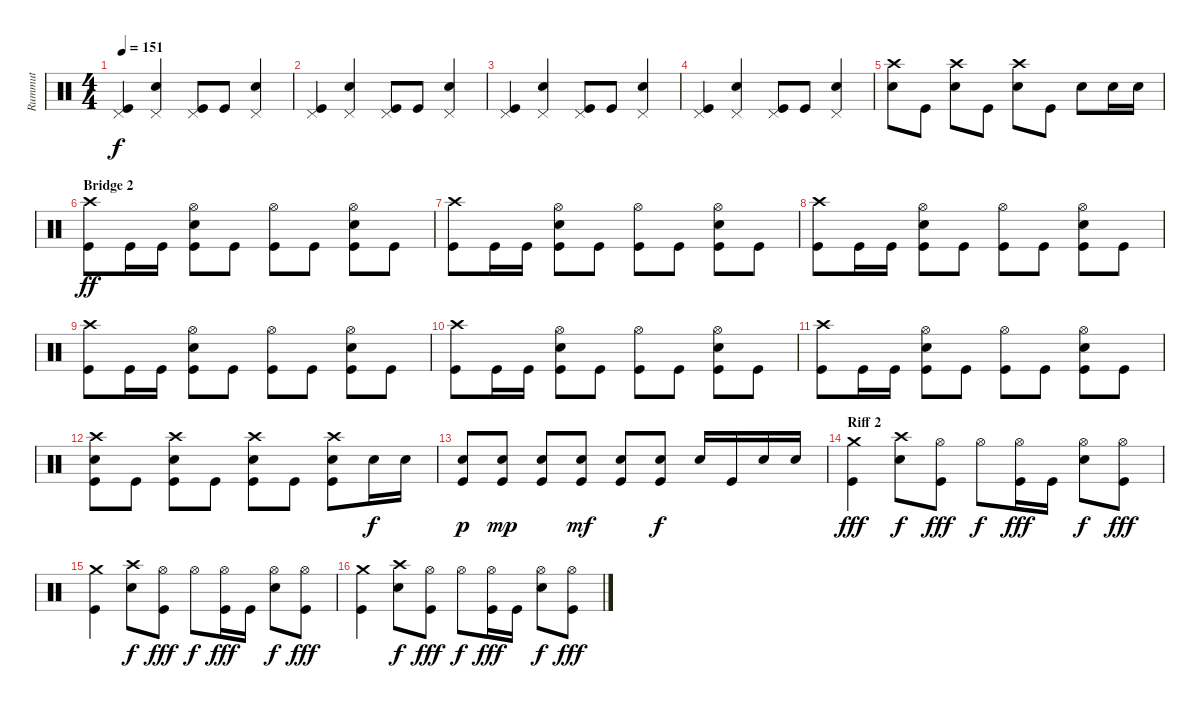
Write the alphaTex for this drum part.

\track ("Rummut" "Rummut") {instrument percussion}
\staff {score}
\articulation defaults
\ts (4 4)
\tempo 151
\clef neutral
\ks c
("Pedal Hi-Hat (hit)" "Kick (hit)").4{dy f} ("Pedal Hi-Hat (hit)" "Snare (hit) 2").4 ("Pedal Hi-Hat (hit)" "Kick (hit)").8 "Kick (hit)".8 ("Pedal Hi-Hat (hit)" "Snare (hit) 2").4 |
("Pedal Hi-Hat (hit)" "Kick (hit)").4 ("Pedal Hi-Hat (hit)" "Snare (hit) 2").4 ("Pedal Hi-Hat (hit)" "Kick (hit)").8 "Kick (hit)".8 ("Pedal Hi-Hat (hit)" "Snare (hit) 2").4 |
("Pedal Hi-Hat (hit)" "Kick (hit)").4 ("Pedal Hi-Hat (hit)" "Snare (hit) 2").4 ("Pedal Hi-Hat (hit)" "Kick (hit)").8 "Kick (hit)".8 ("Pedal Hi-Hat (hit)" "Snare (hit) 2").4 |
("Pedal Hi-Hat (hit)" "Kick (hit)").4 ("Pedal Hi-Hat (hit)" "Snare (hit) 2").4 ("Pedal Hi-Hat (hit)" "Kick (hit)").8 "Kick (hit)".8 ("Pedal Hi-Hat (hit)" "Snare (hit) 2").4 |
("Crash high (hit)" "Snare (hit) 2").8 "Kick (hit)".8 ("Crash high (hit)" "Snare (hit) 2").8 "Kick (hit)".8 ("Crash high (hit)" "Snare (hit) 2").8 "Kick (hit)".8 "Snare (hit) 2".8 "Snare (hit) 2".16 "Snare (hit) 2".16 |
\section ("" "Bridge 2")
("Crash high (hit)" "Kick (hit)").8{dy ff} "Kick (hit)".16 "Kick (hit)".16 ("Hi-Hat (open)" "Snare (hit) 2" "Kick (hit)").8 "Kick (hit)".8 ("Hi-Hat (open)" "Kick (hit)").8 "Kick (hit)".8 ("Hi-Hat (open)" "Snare (hit) 2" "Kick (hit)").8 "Kick (hit)".8 |
("Crash high (hit)" "Kick (hit)").8 "Kick (hit)".16 "Kick (hit)".16 ("Hi-Hat (open)" "Snare (hit) 2" "Kick (hit)").8 "Kick (hit)".8 ("Hi-Hat (open)" "Kick (hit)").8 "Kick (hit)".8 ("Hi-Hat (open)" "Snare (hit) 2" "Kick (hit)").8 "Kick (hit)".8 |
("Crash high (hit)" "Kick (hit)").8 "Kick (hit)".16 "Kick (hit)".16 ("Hi-Hat (open)" "Snare (hit) 2" "Kick (hit)").8 "Kick (hit)".8 ("Hi-Hat (open)" "Kick (hit)").8 "Kick (hit)".8 ("Hi-Hat (open)" "Snare (hit) 2" "Kick (hit)").8 "Kick (hit)".8 |
("Crash high (hit)" "Kick (hit)").8 "Kick (hit)".16 "Kick (hit)".16 ("Hi-Hat (open)" "Snare (hit) 2" "Kick (hit)").8 "Kick (hit)".8 ("Hi-Hat (open)" "Kick (hit)").8 "Kick (hit)".8 ("Hi-Hat (open)" "Snare (hit) 2" "Kick (hit)").8 "Kick (hit)".8 |
("Crash high (hit)" "Kick (hit)").8 "Kick (hit)".16 "Kick (hit)".16 ("Hi-Hat (open)" "Snare (hit) 2" "Kick (hit)").8 "Kick (hit)".8 ("Hi-Hat (open)" "Kick (hit)").8 "Kick (hit)".8 ("Hi-Hat (open)" "Snare (hit) 2" "Kick (hit)").8 "Kick (hit)".8 |
("Crash high (hit)" "Kick (hit)").8 "Kick (hit)".16 "Kick (hit)".16 ("Hi-Hat (open)" "Snare (hit) 2" "Kick (hit)").8 "Kick (hit)".8 ("Hi-Hat (open)" "Kick (hit)").8 "Kick (hit)".8 ("Hi-Hat (open)" "Snare (hit) 2" "Kick (hit)").8 "Kick (hit)".8 |
("Crash high (hit)" "Snare (hit) 2" "Kick (hit)").8 "Kick (hit)".8 ("Crash high (hit)" "Snare (hit) 2" "Kick (hit)").8 "Kick (hit)".8 ("Crash high (hit)" "Snare (hit) 2" "Kick (hit)").8 "Kick (hit)".8 ("Crash high (hit)" "Snare (hit) 2" "Kick (hit)").8 "Snare (hit) 2".16{dy f} "Snare (hit) 2".16 |
("Snare (hit) 2" "Kick (hit)").8{dy p} ("Snare (hit) 2" "Kick (hit)").8{dy mp} ("Snare (hit) 2" "Kick (hit)").8 ("Snare (hit) 2" "Kick (hit)").8{dy mf} ("Snare (hit) 2" "Kick (hit)").8 ("Snare (hit) 2" "Kick (hit)").8{dy f} "Snare (hit) 2".16 "Kick (hit)".16 "Snare (hit) 2".16 "Snare (hit) 2".16 |
\section ("" "Riff 2")
("Crash medium (hit)" "Kick (hit)").4{dy fff} ("Crash high (hit)" "Snare (hit) 2").8{dy f} ("Hi-Hat (open)" "Kick (hit)").8{dy fff} "Hi-Hat (open)".8{dy f} ("Hi-Hat (open)" "Kick (hit)").16{dy fff} "Kick (hit)".16 ("Hi-Hat (open)" "Snare (hit) 2").8{dy f} ("Hi-Hat (open)" "Kick (hit)").8{dy fff} |
("Crash medium (hit)" "Kick (hit)").4 ("Crash high (hit)" "Snare (hit) 2").8{dy f} ("Hi-Hat (open)" "Kick (hit)").8{dy fff} "Hi-Hat (open)".8{dy f} ("Hi-Hat (open)" "Kick (hit)").16{dy fff} "Kick (hit)".16 ("Hi-Hat (open)" "Snare (hit) 2").8{dy f} ("Hi-Hat (open)" "Kick (hit)").8{dy fff} |
("Crash medium (hit)" "Kick (hit)").4 ("Crash high (hit)" "Snare (hit) 2").8{dy f} ("Hi-Hat (open)" "Kick (hit)").8{dy fff} "Hi-Hat (open)".8{dy f} ("Hi-Hat (open)" "Kick (hit)").16{dy fff} "Kick (hit)".16 ("Hi-Hat (open)" "Snare (hit) 2").8{dy f} ("Hi-Hat (open)" "Kick (hit)").8{dy fff}
